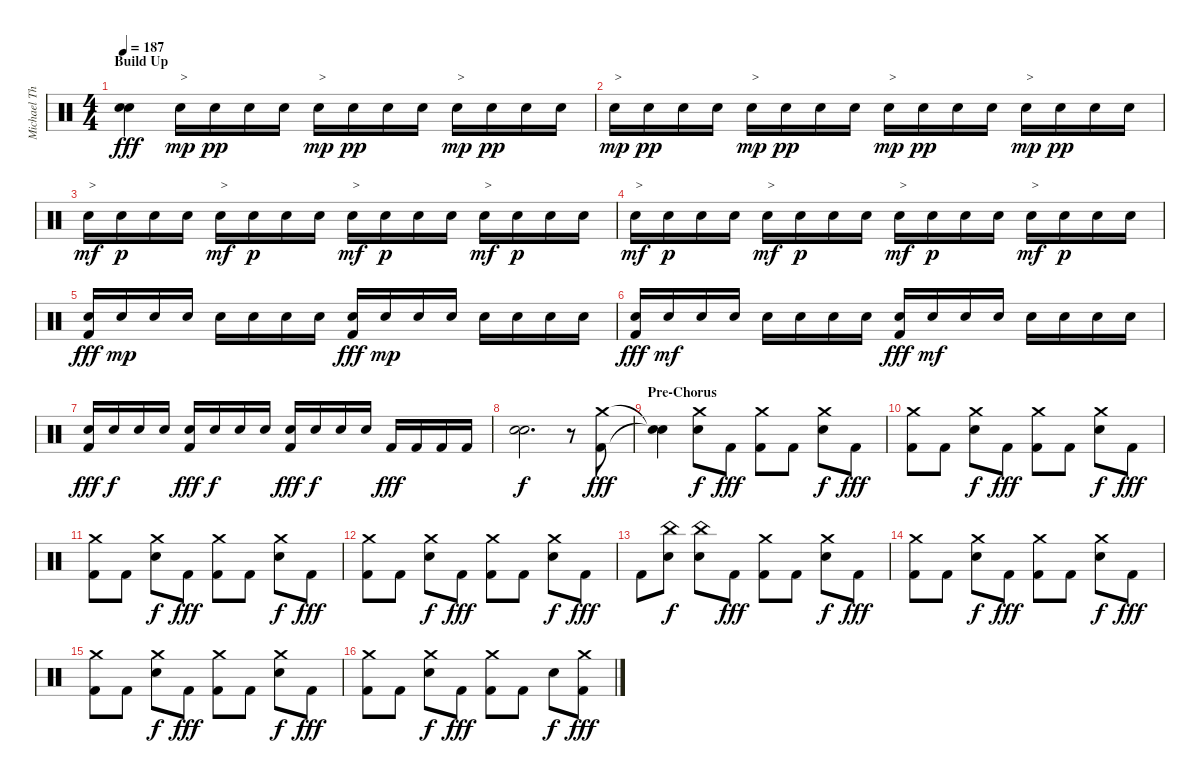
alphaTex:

\track ("Michael Thomas" "Michael Th") {instrument percussion}
\staff {score}
\articulation defaults
\ts (4 4)
\section ("" "Build Up")
\tempo 187
\clef neutral
\ks c
("Snare (hit)"{t} "Snare (hit)"{t}).4{dy fff} "Electric Snare (hit)".16{txt ">" dy mp} "Electric Snare (hit)".16{dy pp} "Electric Snare (hit)".16 "Electric Snare (hit)".16 "Electric Snare (hit)".16{txt ">" dy mp} "Electric Snare (hit)".16{dy pp} "Electric Snare (hit)".16 "Electric Snare (hit)".16 "Electric Snare (hit)".16{txt ">" dy mp} "Electric Snare (hit)".16{dy pp} "Electric Snare (hit)".16 "Electric Snare (hit)".16 |
"Electric Snare (hit)".16{txt ">" dy mp} "Electric Snare (hit)".16{dy pp} "Electric Snare (hit)".16 "Electric Snare (hit)".16 "Electric Snare (hit)".16{txt ">" dy mp} "Electric Snare (hit)".16{dy pp} "Electric Snare (hit)".16 "Electric Snare (hit)".16 "Electric Snare (hit)".16{txt ">" dy mp} "Electric Snare (hit)".16{dy pp} "Electric Snare (hit)".16 "Electric Snare (hit)".16 "Electric Snare (hit)".16{txt ">" dy mp} "Electric Snare (hit)".16{dy pp} "Electric Snare (hit)".16 "Electric Snare (hit)".16 |
"Electric Snare (hit)".16{txt ">" dy mf} "Electric Snare (hit)".16{dy p} "Electric Snare (hit)".16 "Electric Snare (hit)".16 "Electric Snare (hit)".16{txt ">" dy mf} "Electric Snare (hit)".16{dy p} "Electric Snare (hit)".16 "Electric Snare (hit)".16 "Electric Snare (hit)".16{txt ">" dy mf} "Electric Snare (hit)".16{dy p} "Electric Snare (hit)".16 "Electric Snare (hit)".16 "Electric Snare (hit)".16{txt ">" dy mf} "Electric Snare (hit)".16{dy p} "Electric Snare (hit)".16 "Electric Snare (hit)".16 |
"Electric Snare (hit)".16{txt ">" dy mf} "Electric Snare (hit)".16{dy p} "Electric Snare (hit)".16 "Electric Snare (hit)".16 "Electric Snare (hit)".16{txt ">" dy mf} "Electric Snare (hit)".16{dy p} "Electric Snare (hit)".16 "Electric Snare (hit)".16 "Electric Snare (hit)".16{txt ">" dy mf} "Electric Snare (hit)".16{dy p} "Electric Snare (hit)".16 "Electric Snare (hit)".16 "Electric Snare (hit)".16{txt ">" dy mf} "Electric Snare (hit)".16{dy p} "Electric Snare (hit)".16 "Electric Snare (hit)".16 |
("Electric Snare (hit)" "Kick (hit) 2").16{dy fff} "Electric Snare (hit)".16{dy mp} "Electric Snare (hit)".16 "Electric Snare (hit)".16 "Electric Snare (hit)".16 "Electric Snare (hit)".16 "Electric Snare (hit)".16 "Electric Snare (hit)".16 ("Electric Snare (hit)" "Kick (hit) 2").16{dy fff} "Electric Snare (hit)".16{dy mp} "Electric Snare (hit)".16 "Electric Snare (hit)".16 "Electric Snare (hit)".16 "Electric Snare (hit)".16 "Electric Snare (hit)".16 "Electric Snare (hit)".16 |
("Electric Snare (hit)" "Kick (hit) 2").16{dy fff} "Electric Snare (hit)".16{dy mf} "Electric Snare (hit)".16 "Electric Snare (hit)".16 "Electric Snare (hit)".16 "Electric Snare (hit)".16 "Electric Snare (hit)".16 "Electric Snare (hit)".16 ("Electric Snare (hit)" "Kick (hit) 2").16{dy fff} "Electric Snare (hit)".16{dy mf} "Electric Snare (hit)".16 "Electric Snare (hit)".16 "Electric Snare (hit)".16 "Electric Snare (hit)".16 "Electric Snare (hit)".16 "Electric Snare (hit)".16 |
("Electric Snare (hit)" "Kick (hit) 2").16{dy fff} "Electric Snare (hit)".16{dy f} "Electric Snare (hit)".16 "Electric Snare (hit)".16 ("Electric Snare (hit)" "Kick (hit) 2").16{dy fff} "Electric Snare (hit)".16{dy f} "Electric Snare (hit)".16 "Electric Snare (hit)".16 ("Electric Snare (hit)" "Kick (hit) 2").16{dy fff} "Electric Snare (hit)".16{dy f} "Electric Snare (hit)".16 "Electric Snare (hit)".16 "Kick (hit) 2".16{dy fff} "Kick (hit) 2".16 "Kick (hit) 2".16 "Kick (hit) 2".16 |
("Electric Snare (hit)" "Electric Snare (hit)").2{d bd 120 dy f} r.8 ("Crash medium (hit)" "Kick (hit) 2").8{dy fff} |
\section ("" "Pre-Chorus")
("Snare (hit)"{t} "Snare (hit)"{t}).4 ("Crash medium (hit)" "Electric Snare (hit)").8{dy f} "Kick (hit) 2".8{dy fff} ("Crash medium (hit)" "Kick (hit) 2").8 "Kick (hit) 2".8 ("Crash medium (hit)" "Electric Snare (hit)").8{dy f} "Kick (hit) 2".8{dy fff} |
("Crash medium (hit)" "Kick (hit) 2").8 "Kick (hit) 2".8 ("Crash medium (hit)" "Electric Snare (hit)").8{dy f} "Kick (hit) 2".8{dy fff} ("Crash medium (hit)" "Kick (hit) 2").8 "Kick (hit) 2".8 ("Crash medium (hit)" "Electric Snare (hit)").8{dy f} "Kick (hit) 2".8{dy fff} |
("Crash medium (hit)" "Kick (hit) 2").8 "Kick (hit) 2".8 ("Crash medium (hit)" "Electric Snare (hit)").8{dy f} "Kick (hit) 2".8{dy fff} ("Crash medium (hit)" "Kick (hit) 2").8 "Kick (hit) 2".8 ("Crash medium (hit)" "Electric Snare (hit)").8{dy f} "Kick (hit) 2".8{dy fff} |
("Crash medium (hit)" "Kick (hit) 2").8 "Kick (hit) 2".8 ("Crash medium (hit)" "Electric Snare (hit)").8{dy f} "Kick (hit) 2".8{dy fff} ("Crash medium (hit)" "Kick (hit) 2").8 "Kick (hit) 2".8 ("Crash medium (hit)" "Electric Snare (hit)").8{dy f} "Kick (hit) 2".8{dy fff} |
"Kick (hit) 2".8 ("China (hit)" "Electric Snare (hit)").8{dy f} ("China (hit)" "Electric Snare (hit)").8 "Kick (hit) 2".8{dy fff} ("Crash medium (hit)" "Kick (hit) 2").8 "Kick (hit) 2".8 ("Crash medium (hit)" "Electric Snare (hit)").8{dy f} "Kick (hit) 2".8{dy fff} |
("Crash medium (hit)" "Kick (hit) 2").8 "Kick (hit) 2".8 ("Crash medium (hit)" "Electric Snare (hit)").8{dy f} "Kick (hit) 2".8{dy fff} ("Crash medium (hit)" "Kick (hit) 2").8 "Kick (hit) 2".8 ("Crash medium (hit)" "Electric Snare (hit)").8{dy f} "Kick (hit) 2".8{dy fff} |
("Crash medium (hit)" "Kick (hit) 2").8 "Kick (hit) 2".8 ("Crash medium (hit)" "Electric Snare (hit)").8{dy f} "Kick (hit) 2".8{dy fff} ("Crash medium (hit)" "Kick (hit) 2").8 "Kick (hit) 2".8 ("Crash medium (hit)" "Electric Snare (hit)").8{dy f} "Kick (hit) 2".8{dy fff} |
("Crash medium (hit)" "Kick (hit) 2").8 "Kick (hit) 2".8 ("Crash medium (hit)" "Electric Snare (hit)").8{dy f} "Kick (hit) 2".8{dy fff} ("Crash medium (hit)" "Kick (hit) 2").8 "Kick (hit) 2".8 "Electric Snare (hit)".8{dy f} ("Crash medium (hit)" "Kick (hit) 2").8{dy fff}
